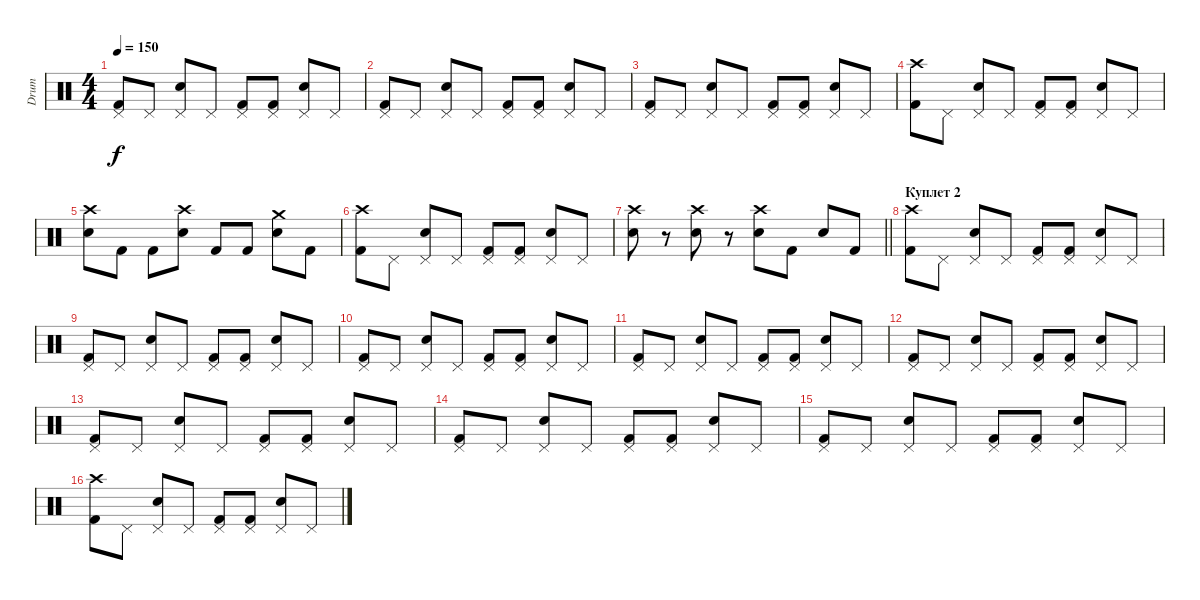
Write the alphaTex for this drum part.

\track ("Drum" "Drum") {instrument percussion}
\staff {score}
\articulation defaults
\ts (4 4)
\tempo 150
\clef neutral
\ks c
("Pedal Hi-Hat (hit)" "Kick (hit) 2").8{dy f} "Pedal Hi-Hat (hit)".8 ("Pedal Hi-Hat (hit)" "Electric Snare (hit)").8 "Pedal Hi-Hat (hit)".8 ("Pedal Hi-Hat (hit)" "Kick (hit) 2").8 ("Pedal Hi-Hat (hit)" "Kick (hit) 2").8 ("Pedal Hi-Hat (hit)" "Electric Snare (hit)").8 "Pedal Hi-Hat (hit)".8 |
("Pedal Hi-Hat (hit)" "Kick (hit) 2").8 "Pedal Hi-Hat (hit)".8 ("Pedal Hi-Hat (hit)" "Electric Snare (hit)").8 "Pedal Hi-Hat (hit)".8 ("Pedal Hi-Hat (hit)" "Kick (hit) 2").8 ("Pedal Hi-Hat (hit)" "Kick (hit) 2").8 ("Pedal Hi-Hat (hit)" "Electric Snare (hit)").8 "Pedal Hi-Hat (hit)".8 |
("Pedal Hi-Hat (hit)" "Kick (hit) 2").8 "Pedal Hi-Hat (hit)".8 ("Pedal Hi-Hat (hit)" "Electric Snare (hit)").8 "Pedal Hi-Hat (hit)".8 ("Pedal Hi-Hat (hit)" "Kick (hit) 2").8 ("Pedal Hi-Hat (hit)" "Kick (hit) 2").8 ("Pedal Hi-Hat (hit)" "Electric Snare (hit)").8 "Pedal Hi-Hat (hit)".8 |
("Crash high (hit)" "Kick (hit) 2").8 "Pedal Hi-Hat (hit)".8 ("Pedal Hi-Hat (hit)" "Electric Snare (hit)").8 "Pedal Hi-Hat (hit)".8 ("Pedal Hi-Hat (hit)" "Kick (hit) 2").8 ("Pedal Hi-Hat (hit)" "Kick (hit) 2").8 ("Pedal Hi-Hat (hit)" "Electric Snare (hit)").8 "Pedal Hi-Hat (hit)".8 |
("Crash high (hit)" "Electric Snare (hit)").8 "Kick (hit) 2".8 "Kick (hit) 2".8 ("Crash high (hit)" "Electric Snare (hit)").8 "Kick (hit) 2".8 "Kick (hit) 2".8 ("Crash medium (hit)" "Electric Snare (hit)").8 "Kick (hit) 2".8 |
("Crash high (hit)" "Kick (hit) 2").8 "Pedal Hi-Hat (hit)".8 ("Pedal Hi-Hat (hit)" "Electric Snare (hit)").8 "Pedal Hi-Hat (hit)".8 ("Pedal Hi-Hat (hit)" "Kick (hit) 2").8 ("Pedal Hi-Hat (hit)" "Kick (hit) 2").8 ("Pedal Hi-Hat (hit)" "Electric Snare (hit)").8 "Pedal Hi-Hat (hit)".8 |
\barLineRight lightlight
("Crash high (hit)" "Electric Snare (hit)").8 r.8 ("Crash high (hit)" "Electric Snare (hit)").8 r.8 ("Crash high (hit)" "Electric Snare (hit)").8 "Kick (hit) 2".8 "Electric Snare (hit)".8 "Kick (hit) 2".8 |
\section ("" "Куплет 2")
("Crash high (hit)" "Kick (hit) 2").8 "Pedal Hi-Hat (hit)".8 ("Pedal Hi-Hat (hit)" "Electric Snare (hit)").8 "Pedal Hi-Hat (hit)".8 ("Pedal Hi-Hat (hit)" "Kick (hit) 2").8 ("Pedal Hi-Hat (hit)" "Kick (hit) 2").8 ("Pedal Hi-Hat (hit)" "Electric Snare (hit)").8 "Pedal Hi-Hat (hit)".8 |
("Pedal Hi-Hat (hit)" "Kick (hit) 2").8 "Pedal Hi-Hat (hit)".8 ("Pedal Hi-Hat (hit)" "Electric Snare (hit)").8 "Pedal Hi-Hat (hit)".8 ("Pedal Hi-Hat (hit)" "Kick (hit) 2").8 ("Pedal Hi-Hat (hit)" "Kick (hit) 2").8 ("Pedal Hi-Hat (hit)" "Electric Snare (hit)").8 "Pedal Hi-Hat (hit)".8 |
("Pedal Hi-Hat (hit)" "Kick (hit) 2").8 "Pedal Hi-Hat (hit)".8 ("Pedal Hi-Hat (hit)" "Electric Snare (hit)").8 "Pedal Hi-Hat (hit)".8 ("Pedal Hi-Hat (hit)" "Kick (hit) 2").8 ("Pedal Hi-Hat (hit)" "Kick (hit) 2").8 ("Pedal Hi-Hat (hit)" "Electric Snare (hit)").8 "Pedal Hi-Hat (hit)".8 |
("Pedal Hi-Hat (hit)" "Kick (hit) 2").8 "Pedal Hi-Hat (hit)".8 ("Pedal Hi-Hat (hit)" "Electric Snare (hit)").8 "Pedal Hi-Hat (hit)".8 ("Pedal Hi-Hat (hit)" "Kick (hit) 2").8 ("Pedal Hi-Hat (hit)" "Kick (hit) 2").8 ("Pedal Hi-Hat (hit)" "Electric Snare (hit)").8 "Pedal Hi-Hat (hit)".8 |
("Pedal Hi-Hat (hit)" "Kick (hit) 2").8 "Pedal Hi-Hat (hit)".8 ("Pedal Hi-Hat (hit)" "Electric Snare (hit)").8 "Pedal Hi-Hat (hit)".8 ("Pedal Hi-Hat (hit)" "Kick (hit) 2").8 ("Pedal Hi-Hat (hit)" "Kick (hit) 2").8 ("Pedal Hi-Hat (hit)" "Electric Snare (hit)").8 "Pedal Hi-Hat (hit)".8 |
("Pedal Hi-Hat (hit)" "Kick (hit) 2").8 "Pedal Hi-Hat (hit)".8 ("Pedal Hi-Hat (hit)" "Electric Snare (hit)").8 "Pedal Hi-Hat (hit)".8 ("Pedal Hi-Hat (hit)" "Kick (hit) 2").8 ("Pedal Hi-Hat (hit)" "Kick (hit) 2").8 ("Pedal Hi-Hat (hit)" "Electric Snare (hit)").8 "Pedal Hi-Hat (hit)".8 |
("Pedal Hi-Hat (hit)" "Kick (hit) 2").8 "Pedal Hi-Hat (hit)".8 ("Pedal Hi-Hat (hit)" "Electric Snare (hit)").8 "Pedal Hi-Hat (hit)".8 ("Pedal Hi-Hat (hit)" "Kick (hit) 2").8 ("Pedal Hi-Hat (hit)" "Kick (hit) 2").8 ("Pedal Hi-Hat (hit)" "Electric Snare (hit)").8 "Pedal Hi-Hat (hit)".8 |
("Pedal Hi-Hat (hit)" "Kick (hit) 2").8 "Pedal Hi-Hat (hit)".8 ("Pedal Hi-Hat (hit)" "Electric Snare (hit)").8 "Pedal Hi-Hat (hit)".8 ("Pedal Hi-Hat (hit)" "Kick (hit) 2").8 ("Pedal Hi-Hat (hit)" "Kick (hit) 2").8 ("Pedal Hi-Hat (hit)" "Electric Snare (hit)").8 "Pedal Hi-Hat (hit)".8 |
("Crash high (hit)" "Kick (hit) 2").8 "Pedal Hi-Hat (hit)".8 ("Pedal Hi-Hat (hit)" "Electric Snare (hit)").8 "Pedal Hi-Hat (hit)".8 ("Pedal Hi-Hat (hit)" "Kick (hit) 2").8 ("Pedal Hi-Hat (hit)" "Kick (hit) 2").8 ("Pedal Hi-Hat (hit)" "Electric Snare (hit)").8 "Pedal Hi-Hat (hit)".8
